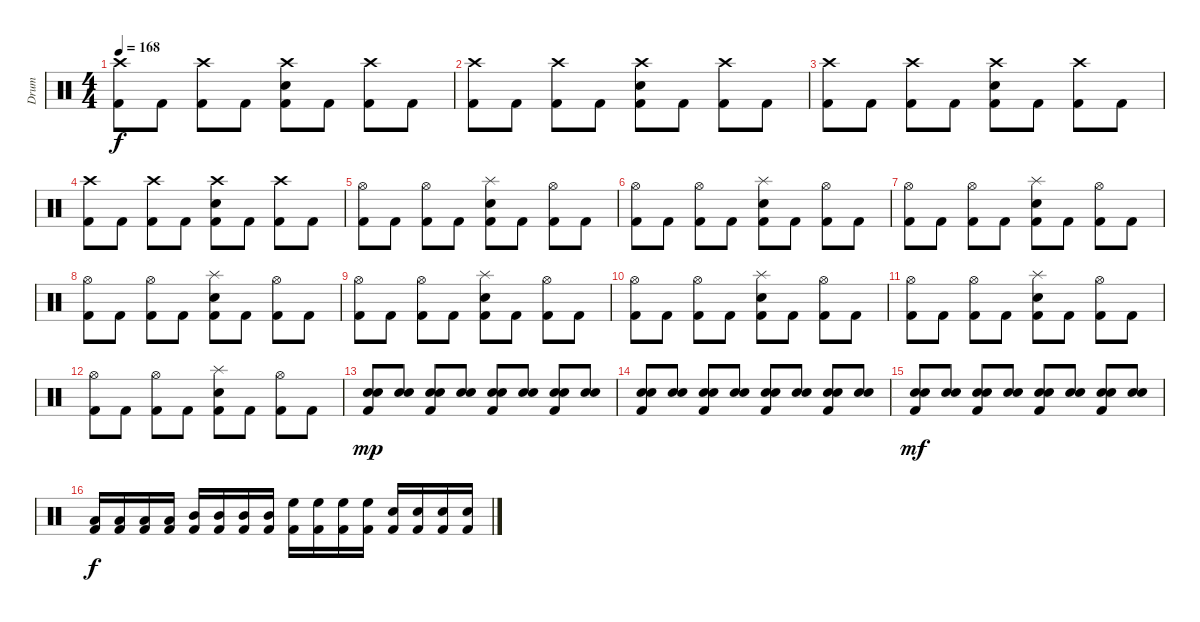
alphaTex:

\track ("Drum" "Drum") {instrument percussion}
\staff {score}
\articulation defaults
\ts (4 4)
\tempo 168
\clef neutral
\ks c
("Crash high (hit)" "Kick (hit) 2").8{dy f} "Kick (hit) 2".8 ("Kick (hit) 2" "Crash high (hit)").8 "Kick (hit) 2".8 ("Crash high (hit)" "Kick (hit) 2" "Electric Snare (hit)").8 "Kick (hit) 2".8 ("Kick (hit) 2" "Crash high (hit)").8 "Kick (hit) 2".8 |
("Crash high (hit)" "Kick (hit) 2").8 "Kick (hit) 2".8 ("Kick (hit) 2" "Crash high (hit)").8 "Kick (hit) 2".8 ("Crash high (hit)" "Kick (hit) 2" "Electric Snare (hit)").8 "Kick (hit) 2".8 ("Kick (hit) 2" "Crash high (hit)").8 "Kick (hit) 2".8 |
("Crash high (hit)" "Kick (hit) 2").8 "Kick (hit) 2".8 ("Kick (hit) 2" "Crash high (hit)").8 "Kick (hit) 2".8 ("Crash high (hit)" "Kick (hit) 2" "Electric Snare (hit)").8 "Kick (hit) 2".8 ("Kick (hit) 2" "Crash high (hit)").8 "Kick (hit) 2".8 |
("Crash high (hit)" "Kick (hit) 2").8 "Kick (hit) 2".8 ("Kick (hit) 2" "Crash high (hit)").8 "Kick (hit) 2".8 ("Crash high (hit)" "Kick (hit) 2" "Electric Snare (hit)").8 "Kick (hit) 2".8 ("Kick (hit) 2" "Crash high (hit)").8 "Kick (hit) 2".8 |
("Hi-Hat (open)" "Kick (hit) 2").8 "Kick (hit) 2".8 ("Hi-Hat (open)" "Kick (hit) 2").8 "Kick (hit) 2".8 ("Splash (hit)" "Kick (hit) 2" "Electric Snare (hit)").8 "Kick (hit) 2".8 ("Hi-Hat (open)" "Kick (hit) 2").8 "Kick (hit) 2".8 |
("Hi-Hat (open)" "Kick (hit) 2").8 "Kick (hit) 2".8 ("Hi-Hat (open)" "Kick (hit) 2").8 "Kick (hit) 2".8 ("Splash (hit)" "Kick (hit) 2" "Electric Snare (hit)").8 "Kick (hit) 2".8 ("Hi-Hat (open)" "Kick (hit) 2").8 "Kick (hit) 2".8 |
("Hi-Hat (open)" "Kick (hit) 2").8 "Kick (hit) 2".8 ("Hi-Hat (open)" "Kick (hit) 2").8 "Kick (hit) 2".8 ("Splash (hit)" "Kick (hit) 2" "Electric Snare (hit)").8 "Kick (hit) 2".8 ("Hi-Hat (open)" "Kick (hit) 2").8 "Kick (hit) 2".8 |
("Hi-Hat (open)" "Kick (hit) 2").8 "Kick (hit) 2".8 ("Hi-Hat (open)" "Kick (hit) 2").8 "Kick (hit) 2".8 ("Splash (hit)" "Kick (hit) 2" "Electric Snare (hit)").8 "Kick (hit) 2".8 ("Hi-Hat (open)" "Kick (hit) 2").8 "Kick (hit) 2".8 |
("Hi-Hat (open)" "Kick (hit) 2").8 "Kick (hit) 2".8 ("Hi-Hat (open)" "Kick (hit) 2").8 "Kick (hit) 2".8 ("Splash (hit)" "Kick (hit) 2" "Electric Snare (hit)").8 "Kick (hit) 2".8 ("Hi-Hat (open)" "Kick (hit) 2").8 "Kick (hit) 2".8 |
("Hi-Hat (open)" "Kick (hit) 2").8 "Kick (hit) 2".8 ("Hi-Hat (open)" "Kick (hit) 2").8 "Kick (hit) 2".8 ("Splash (hit)" "Kick (hit) 2" "Electric Snare (hit)").8 "Kick (hit) 2".8 ("Hi-Hat (open)" "Kick (hit) 2").8 "Kick (hit) 2".8 |
("Hi-Hat (open)" "Kick (hit) 2").8 "Kick (hit) 2".8 ("Hi-Hat (open)" "Kick (hit) 2").8 "Kick (hit) 2".8 ("Splash (hit)" "Kick (hit) 2" "Electric Snare (hit)").8 "Kick (hit) 2".8 ("Hi-Hat (open)" "Kick (hit) 2").8 "Kick (hit) 2".8 |
("Hi-Hat (open)" "Kick (hit) 2").8 "Kick (hit) 2".8 ("Hi-Hat (open)" "Kick (hit) 2").8 "Kick (hit) 2".8 ("Splash (hit)" "Kick (hit) 2" "Electric Snare (hit)").8 "Kick (hit) 2".8 ("Hi-Hat (open)" "Kick (hit) 2").8 "Kick (hit) 2".8 |
("Electric Snare (hit)" "Kick (hit) 2" "Electric Snare (hit)").8{dy mp} ("Electric Snare (hit)" "Electric Snare (hit)").8 ("Electric Snare (hit)" "Kick (hit) 2" "Electric Snare (hit)").8 ("Electric Snare (hit)" "Electric Snare (hit)").8 ("Electric Snare (hit)" "Kick (hit) 2" "Electric Snare (hit)").8 ("Electric Snare (hit)" "Electric Snare (hit)").8 ("Electric Snare (hit)" "Kick (hit) 2" "Electric Snare (hit)").8 ("Electric Snare (hit)" "Electric Snare (hit)").8 |
("Electric Snare (hit)" "Kick (hit) 2" "Electric Snare (hit)").8 ("Electric Snare (hit)" "Electric Snare (hit)").8 ("Electric Snare (hit)" "Kick (hit) 2" "Electric Snare (hit)").8 ("Electric Snare (hit)" "Electric Snare (hit)").8 ("Electric Snare (hit)" "Kick (hit) 2" "Electric Snare (hit)").8 ("Electric Snare (hit)" "Electric Snare (hit)").8 ("Electric Snare (hit)" "Kick (hit) 2" "Electric Snare (hit)").8 ("Electric Snare (hit)" "Electric Snare (hit)").8 |
("Electric Snare (hit)" "Kick (hit) 2" "Electric Snare (hit)").8{dy mf} ("Electric Snare (hit)" "Electric Snare (hit)").8 ("Electric Snare (hit)" "Kick (hit) 2" "Electric Snare (hit)").8 ("Electric Snare (hit)" "Electric Snare (hit)").8 ("Electric Snare (hit)" "Kick (hit) 2" "Electric Snare (hit)").8 ("Electric Snare (hit)" "Electric Snare (hit)").8 ("Electric Snare (hit)" "Kick (hit) 2" "Electric Snare (hit)").8 ("Electric Snare (hit)" "Electric Snare (hit)").8 |
("Low Tom (hit)" "Kick (hit) 2").16{dy f} ("Low Tom (hit)" "Kick (hit) 2").16 ("Low Tom (hit)" "Kick (hit) 2").16 ("Low Tom (hit)" "Kick (hit) 2").16 ("Mid Tom (hit)" "Kick (hit) 2").16 ("Mid Tom (hit)" "Kick (hit) 2").16 ("Mid Tom (hit)" "Kick (hit) 2").16 ("Mid Tom (hit)" "Kick (hit) 2").16 ("High Floor Tom (hit)" "Kick (hit) 2").16 ("High Floor Tom (hit)" "Kick (hit) 2").16 ("High Floor Tom (hit)" "Kick (hit) 2").16 ("High Floor Tom (hit)" "Kick (hit) 2").16 ("Electric Snare (hit)" "Kick (hit) 2").16 ("Electric Snare (hit)" "Kick (hit) 2").16 ("Electric Snare (hit)" "Kick (hit) 2").16 ("Electric Snare (hit)" "Kick (hit) 2").16
